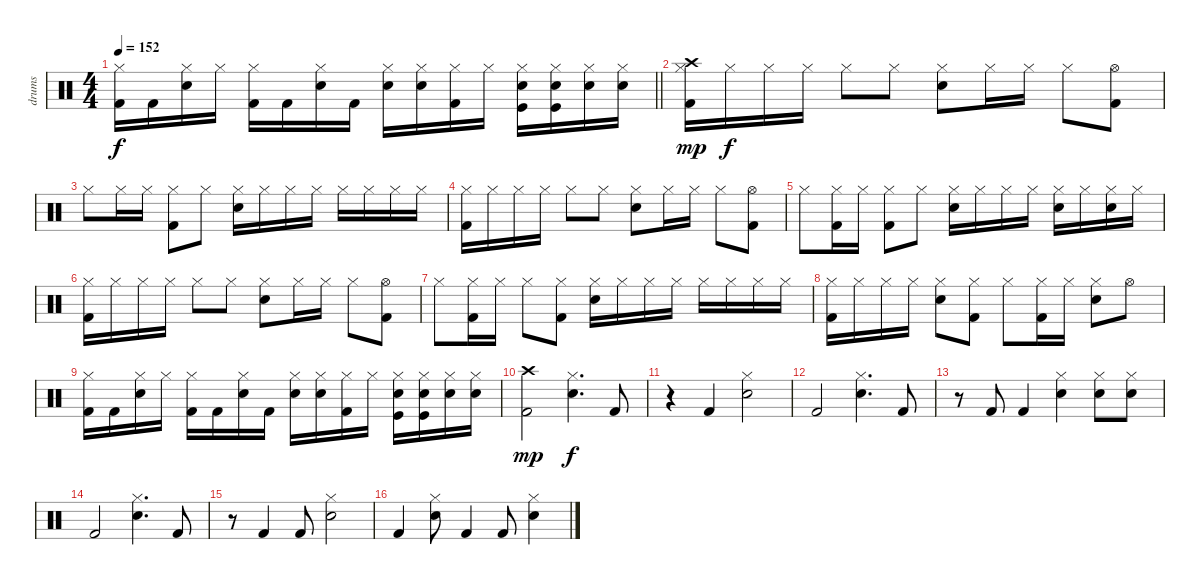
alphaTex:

\track ("drums" "drums") {instrument percussion}
\staff {score}
\articulation defaults
\ts (4 4)
\tempo 152
\clef neutral
\barLineRight lightlight
\ks c
("Hi-Hat (closed)" "Kick (hit) 2").16{dy f} "Kick (hit) 2".16 ("Hi-Hat (closed)" "Snare (hit) 2").16 "Hi-Hat (closed)".16 ("Hi-Hat (closed)" "Kick (hit) 2").16 "Kick (hit) 2".16 ("Hi-Hat (closed)" "Snare (hit) 2").16 "Kick (hit) 2".16 ("Hi-Hat (closed)" "Snare (hit) 2").16 ("Hi-Hat (closed)" "Snare (hit) 2").16 ("Hi-Hat (closed)" "Kick (hit) 2").16 "Hi-Hat (closed)".16 ("Hi-Hat (closed)" "Snare (hit) 2" "Kick (hit)").16 ("Hi-Hat (closed)" "Snare (hit) 2" "Kick (hit)").16 ("Hi-Hat (closed)" "Snare (hit) 2").16 ("Hi-Hat (closed)" "Snare (hit) 2").16 |
("Hi-Hat (closed)" "Kick (hit) 2" "Crash high (hit)").16{dy mp} "Hi-Hat (closed)".16{dy f} "Hi-Hat (closed)".16 "Hi-Hat (closed)".16 "Hi-Hat (closed)".8 "Hi-Hat (closed)".8 ("Snare (hit) 2" "Hi-Hat (closed)").8 "Hi-Hat (closed)".16 "Hi-Hat (closed)".16 "Hi-Hat (closed)".8 ("Hi-Hat (open)" "Kick (hit) 2").8 |
"Hi-Hat (closed)".8 "Hi-Hat (closed)".16 "Hi-Hat (closed)".16 ("Hi-Hat (closed)" "Kick (hit) 2").8 "Hi-Hat (closed)".8 ("Hi-Hat (closed)" "Snare (hit) 2").16 "Hi-Hat (closed)".16 "Hi-Hat (closed)".16 "Hi-Hat (closed)".16 "Hi-Hat (closed)".16 "Hi-Hat (closed)".16 "Hi-Hat (closed)".16 "Hi-Hat (closed)".16 |
("Hi-Hat (closed)" "Kick (hit) 2").16 "Hi-Hat (closed)".16 "Hi-Hat (closed)".16 "Hi-Hat (closed)".16 "Hi-Hat (closed)".8 "Hi-Hat (closed)".8 ("Snare (hit) 2" "Hi-Hat (closed)").8 "Hi-Hat (closed)".16 "Hi-Hat (closed)".16 "Hi-Hat (closed)".8 ("Hi-Hat (open)" "Kick (hit) 2").8 |
"Hi-Hat (closed)".8 ("Hi-Hat (closed)" "Kick (hit) 2").16 "Hi-Hat (closed)".16 ("Hi-Hat (closed)" "Kick (hit) 2").8 "Hi-Hat (closed)".8 ("Hi-Hat (closed)" "Snare (hit) 2").16 "Hi-Hat (closed)".16 "Hi-Hat (closed)".16 "Hi-Hat (closed)".16 ("Hi-Hat (closed)" "Snare (hit) 2").16 "Hi-Hat (closed)".16 ("Hi-Hat (closed)" "Snare (hit) 2").16 "Hi-Hat (closed)".16 |
("Hi-Hat (closed)" "Kick (hit) 2").16 "Hi-Hat (closed)".16 "Hi-Hat (closed)".16 "Hi-Hat (closed)".16 "Hi-Hat (closed)".8 "Hi-Hat (closed)".8 ("Snare (hit) 2" "Hi-Hat (closed)").8 "Hi-Hat (closed)".16 "Hi-Hat (closed)".16 "Hi-Hat (closed)".8 ("Hi-Hat (open)" "Kick (hit) 2").8 |
"Hi-Hat (closed)".8 ("Hi-Hat (closed)" "Kick (hit) 2").16 "Hi-Hat (closed)".16 "Hi-Hat (closed)".8 ("Hi-Hat (closed)" "Kick (hit) 2").8 ("Hi-Hat (closed)" "Snare (hit) 2").16 "Hi-Hat (closed)".16 "Hi-Hat (closed)".16 "Hi-Hat (closed)".16 "Hi-Hat (closed)".16 "Hi-Hat (closed)".16 "Hi-Hat (closed)".16 "Hi-Hat (closed)".16 |
("Hi-Hat (closed)" "Kick (hit) 2").16 "Hi-Hat (closed)".16 "Hi-Hat (closed)".16 "Hi-Hat (closed)".16 ("Hi-Hat (closed)" "Snare (hit) 2").8 ("Hi-Hat (closed)" "Kick (hit) 2").8 "Hi-Hat (closed)".8 ("Hi-Hat (closed)" "Kick (hit) 2").16 "Hi-Hat (closed)".16 ("Hi-Hat (closed)" "Snare (hit) 2").8 "Hi-Hat (open)".8 |
("Hi-Hat (closed)" "Kick (hit) 2").16 "Kick (hit) 2".16 ("Hi-Hat (closed)" "Snare (hit) 2").16 "Hi-Hat (closed)".16 ("Hi-Hat (closed)" "Kick (hit) 2").16 "Kick (hit) 2".16 ("Hi-Hat (closed)" "Snare (hit) 2").16 "Kick (hit) 2".16 ("Hi-Hat (closed)" "Snare (hit) 2").16 ("Hi-Hat (closed)" "Snare (hit) 2").16 ("Hi-Hat (closed)" "Kick (hit) 2").16 "Hi-Hat (closed)".16 ("Hi-Hat (closed)" "Snare (hit) 2" "Kick (hit)").16 ("Hi-Hat (closed)" "Snare (hit) 2" "Kick (hit)").16 ("Hi-Hat (closed)" "Snare (hit) 2").16 ("Hi-Hat (closed)" "Snare (hit) 2").16 |
("Crash high (hit)" "Kick (hit) 2").2{dy mp} ("Snare (hit) 2" "Hi-Hat (closed)").4{d dy f} "Kick (hit) 2".8 |
r.4 "Kick (hit) 2".4 ("Hi-Hat (closed)" "Snare (hit) 2").2 |
"Kick (hit) 2".2 ("Snare (hit) 2" "Hi-Hat (closed)").4{d} "Kick (hit) 2".8 |
r.8 "Kick (hit) 2".8 "Kick (hit) 2".4 ("Hi-Hat (closed)" "Snare (hit) 2").4 ("Hi-Hat (closed)" "Snare (hit) 2").8 ("Hi-Hat (closed)" "Snare (hit) 2").8 |
"Kick (hit) 2".2 ("Snare (hit) 2" "Hi-Hat (closed)").4{d} "Kick (hit) 2".8 |
r.8 "Kick (hit) 2".4 "Kick (hit) 2".8 ("Hi-Hat (closed)" "Snare (hit) 2").2 |
"Kick (hit) 2".4 ("Hi-Hat (closed)" "Snare (hit) 2").8 "Kick (hit) 2".4 "Kick (hit) 2".8 ("Hi-Hat (closed)" "Snare (hit) 2").4
